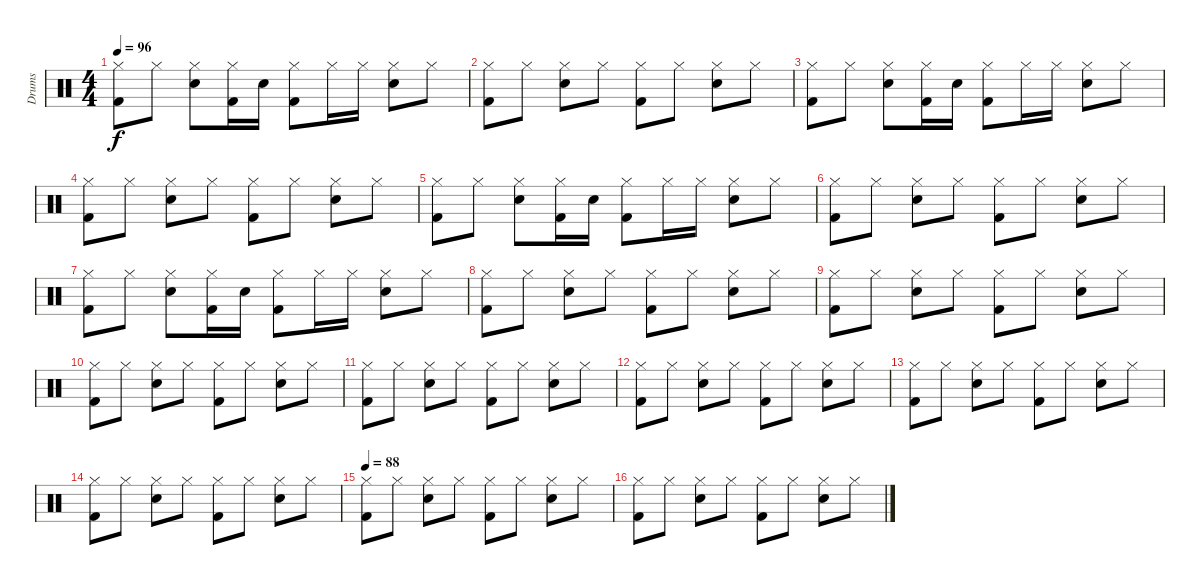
\track ("Drums" "Drums") {instrument percussion}
\staff {score}
\articulation defaults
\ts (4 4)
\tempo 96
\clef neutral
\ks c
("Kick (hit) 2" "Hi-Hat (closed)").8{dy f} "Hi-Hat (closed)".8 ("Snare (hit) 2" "Hi-Hat (closed)").8 ("Kick (hit) 2" "Hi-Hat (closed)").16 "Snare (hit) 2".16 ("Kick (hit) 2" "Hi-Hat (closed)").8 "Hi-Hat (closed)".16 "Hi-Hat (closed)".16 ("Snare (hit) 2" "Hi-Hat (closed)").8 "Hi-Hat (closed)".8 |
("Kick (hit) 2" "Hi-Hat (closed)").8 "Hi-Hat (closed)".8 ("Snare (hit) 2" "Hi-Hat (closed)").8 "Hi-Hat (closed)".8 ("Kick (hit) 2" "Hi-Hat (closed)").8 "Hi-Hat (closed)".8 ("Snare (hit) 2" "Hi-Hat (closed)").8 "Hi-Hat (closed)".8 |
("Kick (hit) 2" "Hi-Hat (closed)").8 "Hi-Hat (closed)".8 ("Snare (hit) 2" "Hi-Hat (closed)").8 ("Kick (hit) 2" "Hi-Hat (closed)").16 "Snare (hit) 2".16 ("Kick (hit) 2" "Hi-Hat (closed)").8 "Hi-Hat (closed)".16 "Hi-Hat (closed)".16 ("Snare (hit) 2" "Hi-Hat (closed)").8 "Hi-Hat (closed)".8 |
("Kick (hit) 2" "Hi-Hat (closed)").8 "Hi-Hat (closed)".8 ("Snare (hit) 2" "Hi-Hat (closed)").8 "Hi-Hat (closed)".8 ("Kick (hit) 2" "Hi-Hat (closed)").8 "Hi-Hat (closed)".8 ("Snare (hit) 2" "Hi-Hat (closed)").8 "Hi-Hat (closed)".8 |
("Kick (hit) 2" "Hi-Hat (closed)").8 "Hi-Hat (closed)".8 ("Snare (hit) 2" "Hi-Hat (closed)").8 ("Kick (hit) 2" "Hi-Hat (closed)").16 "Snare (hit) 2".16 ("Kick (hit) 2" "Hi-Hat (closed)").8 "Hi-Hat (closed)".16 "Hi-Hat (closed)".16 ("Snare (hit) 2" "Hi-Hat (closed)").8 "Hi-Hat (closed)".8 |
("Kick (hit) 2" "Hi-Hat (closed)").8 "Hi-Hat (closed)".8 ("Snare (hit) 2" "Hi-Hat (closed)").8 "Hi-Hat (closed)".8 ("Kick (hit) 2" "Hi-Hat (closed)").8 "Hi-Hat (closed)".8 ("Snare (hit) 2" "Hi-Hat (closed)").8 "Hi-Hat (closed)".8 |
("Kick (hit) 2" "Hi-Hat (closed)").8 "Hi-Hat (closed)".8 ("Snare (hit) 2" "Hi-Hat (closed)").8 ("Kick (hit) 2" "Hi-Hat (closed)").16 "Snare (hit) 2".16 ("Kick (hit) 2" "Hi-Hat (closed)").8 "Hi-Hat (closed)".16 "Hi-Hat (closed)".16 ("Snare (hit) 2" "Hi-Hat (closed)").8 "Hi-Hat (closed)".8 |
("Kick (hit) 2" "Hi-Hat (closed)").8 "Hi-Hat (closed)".8 ("Snare (hit) 2" "Hi-Hat (closed)").8 "Hi-Hat (closed)".8 ("Kick (hit) 2" "Hi-Hat (closed)").8 "Hi-Hat (closed)".8 ("Snare (hit) 2" "Hi-Hat (closed)").8 "Hi-Hat (closed)".8 |
("Kick (hit) 2" "Hi-Hat (closed)").8 "Hi-Hat (closed)".8 ("Snare (hit) 2" "Hi-Hat (closed)").8 "Hi-Hat (closed)".8 ("Kick (hit) 2" "Hi-Hat (closed)").8 "Hi-Hat (closed)".8 ("Snare (hit) 2" "Hi-Hat (closed)").8 "Hi-Hat (closed)".8 |
("Kick (hit) 2" "Hi-Hat (closed)").8 "Hi-Hat (closed)".8 ("Snare (hit) 2" "Hi-Hat (closed)").8 "Hi-Hat (closed)".8 ("Kick (hit) 2" "Hi-Hat (closed)").8 "Hi-Hat (closed)".8 ("Snare (hit) 2" "Hi-Hat (closed)").8 "Hi-Hat (closed)".8 |
("Kick (hit) 2" "Hi-Hat (closed)").8 "Hi-Hat (closed)".8 ("Snare (hit) 2" "Hi-Hat (closed)").8 "Hi-Hat (closed)".8 ("Kick (hit) 2" "Hi-Hat (closed)").8 "Hi-Hat (closed)".8 ("Snare (hit) 2" "Hi-Hat (closed)").8 "Hi-Hat (closed)".8 |
("Kick (hit) 2" "Hi-Hat (closed)").8 "Hi-Hat (closed)".8 ("Snare (hit) 2" "Hi-Hat (closed)").8 "Hi-Hat (closed)".8 ("Kick (hit) 2" "Hi-Hat (closed)").8 "Hi-Hat (closed)".8 ("Snare (hit) 2" "Hi-Hat (closed)").8 "Hi-Hat (closed)".8 |
("Kick (hit) 2" "Hi-Hat (closed)").8 "Hi-Hat (closed)".8 ("Snare (hit) 2" "Hi-Hat (closed)").8 "Hi-Hat (closed)".8 ("Kick (hit) 2" "Hi-Hat (closed)").8 "Hi-Hat (closed)".8 ("Snare (hit) 2" "Hi-Hat (closed)").8 "Hi-Hat (closed)".8 |
("Kick (hit) 2" "Hi-Hat (closed)").8 "Hi-Hat (closed)".8 ("Snare (hit) 2" "Hi-Hat (closed)").8 "Hi-Hat (closed)".8 ("Kick (hit) 2" "Hi-Hat (closed)").8 "Hi-Hat (closed)".8 ("Snare (hit) 2" "Hi-Hat (closed)").8 "Hi-Hat (closed)".8 |
\tempo 88
("Kick (hit) 2" "Hi-Hat (closed)").8 "Hi-Hat (closed)".8 ("Snare (hit) 2" "Hi-Hat (closed)").8 "Hi-Hat (closed)".8 ("Kick (hit) 2" "Hi-Hat (closed)").8 "Hi-Hat (closed)".8 ("Snare (hit) 2" "Hi-Hat (closed)").8 "Hi-Hat (closed)".8 |
("Kick (hit) 2" "Hi-Hat (closed)").8 "Hi-Hat (closed)".8 ("Snare (hit) 2" "Hi-Hat (closed)").8 "Hi-Hat (closed)".8 ("Kick (hit) 2" "Hi-Hat (closed)").8 "Hi-Hat (closed)".8 ("Snare (hit) 2" "Hi-Hat (closed)").8 "Hi-Hat (closed)".8
